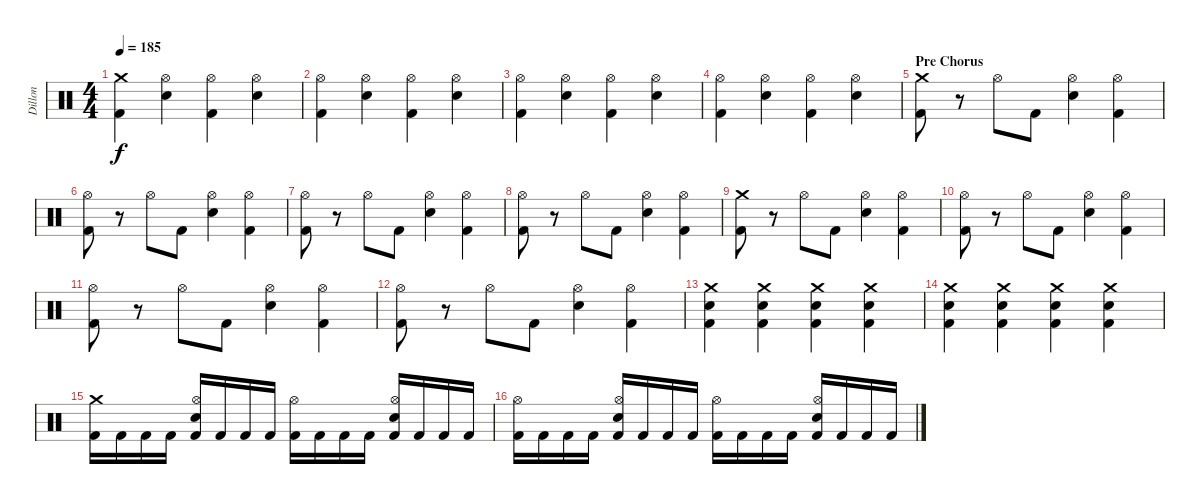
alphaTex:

\track ("Dillon" "Dillon") {instrument percussion}
\staff {score}
\articulation defaults
\ts (4 4)
\tempo 185
\clef neutral
\ks c
("Crash medium (hit)" "Kick (hit) 2").4{dy f} ("Hi-Hat (open)" "Electric Snare (hit)").4 ("Hi-Hat (open)" "Kick (hit) 2").4 ("Hi-Hat (open)" "Electric Snare (hit)").4 |
("Hi-Hat (open)" "Kick (hit) 2").4 ("Hi-Hat (open)" "Electric Snare (hit)").4 ("Hi-Hat (open)" "Kick (hit) 2").4 ("Hi-Hat (open)" "Electric Snare (hit)").4 |
("Hi-Hat (open)" "Kick (hit) 2").4 ("Hi-Hat (open)" "Electric Snare (hit)").4 ("Hi-Hat (open)" "Kick (hit) 2").4 ("Hi-Hat (open)" "Electric Snare (hit)").4 |
("Hi-Hat (open)" "Kick (hit) 2").4 ("Hi-Hat (open)" "Electric Snare (hit)").4 ("Hi-Hat (open)" "Kick (hit) 2").4 ("Hi-Hat (open)" "Electric Snare (hit)").4 |
\section ("" "Pre Chorus")
("Crash medium (hit)" "Kick (hit) 2").8 r.8 "Hi-Hat (open)".8 "Kick (hit) 2".8 ("Hi-Hat (open)" "Electric Snare (hit)").4 ("Hi-Hat (open)" "Kick (hit) 2").4 |
("Hi-Hat (open)" "Kick (hit) 2").8 r.8 "Hi-Hat (open)".8 "Kick (hit) 2".8 ("Hi-Hat (open)" "Electric Snare (hit)").4 ("Hi-Hat (open)" "Kick (hit) 2").4 |
("Hi-Hat (open)" "Kick (hit) 2").8 r.8 "Hi-Hat (open)".8 "Kick (hit) 2".8 ("Hi-Hat (open)" "Electric Snare (hit)").4 ("Hi-Hat (open)" "Kick (hit) 2").4 |
("Hi-Hat (open)" "Kick (hit) 2").8 r.8 "Hi-Hat (open)".8 "Kick (hit) 2".8 ("Hi-Hat (open)" "Electric Snare (hit)").4 ("Hi-Hat (open)" "Kick (hit) 2").4 |
("Crash medium (hit)" "Kick (hit) 2").8 r.8 "Hi-Hat (open)".8 "Kick (hit) 2".8 ("Hi-Hat (open)" "Electric Snare (hit)").4 ("Hi-Hat (open)" "Kick (hit) 2").4 |
("Hi-Hat (open)" "Kick (hit) 2").8 r.8 "Hi-Hat (open)".8 "Kick (hit) 2".8 ("Hi-Hat (open)" "Electric Snare (hit)").4 ("Hi-Hat (open)" "Kick (hit) 2").4 |
("Hi-Hat (open)" "Kick (hit) 2").8 r.8 "Hi-Hat (open)".8 "Kick (hit) 2".8 ("Hi-Hat (open)" "Electric Snare (hit)").4 ("Hi-Hat (open)" "Kick (hit) 2").4 |
("Hi-Hat (open)" "Kick (hit) 2").8 r.8 "Hi-Hat (open)".8 "Kick (hit) 2".8 ("Hi-Hat (open)" "Electric Snare (hit)").4 ("Hi-Hat (open)" "Kick (hit) 2").4 |
("Crash medium (hit)" "Electric Snare (hit)" "Kick (hit) 2").4 ("Crash medium (hit)" "Electric Snare (hit)" "Kick (hit) 2").4 ("Crash medium (hit)" "Electric Snare (hit)" "Kick (hit) 2").4 ("Crash medium (hit)" "Electric Snare (hit)" "Kick (hit) 2").4 |
("Crash medium (hit)" "Electric Snare (hit)" "Kick (hit) 2").4 ("Crash medium (hit)" "Electric Snare (hit)" "Kick (hit) 2").4 ("Crash medium (hit)" "Electric Snare (hit)" "Kick (hit) 2").4 ("Crash medium (hit)" "Electric Snare (hit)" "Kick (hit) 2").4 |
("Crash medium (hit)" "Kick (hit) 2").16 "Kick (hit) 2".16 "Kick (hit) 2".16 "Kick (hit) 2".16 ("Hi-Hat (open)" "Electric Snare (hit)" "Kick (hit) 2").16 "Kick (hit) 2".16 "Kick (hit) 2".16 "Kick (hit) 2".16 ("Hi-Hat (open)" "Kick (hit) 2").16 "Kick (hit) 2".16 "Kick (hit) 2".16 "Kick (hit) 2".16 ("Hi-Hat (open)" "Electric Snare (hit)" "Kick (hit) 2").16 "Kick (hit) 2".16 "Kick (hit) 2".16 "Kick (hit) 2".16 |
("Hi-Hat (open)" "Kick (hit) 2").16 "Kick (hit) 2".16 "Kick (hit) 2".16 "Kick (hit) 2".16 ("Hi-Hat (open)" "Electric Snare (hit)" "Kick (hit) 2").16 "Kick (hit) 2".16 "Kick (hit) 2".16 "Kick (hit) 2".16 ("Hi-Hat (open)" "Kick (hit) 2").16 "Kick (hit) 2".16 "Kick (hit) 2".16 "Kick (hit) 2".16 ("Hi-Hat (open)" "Electric Snare (hit)" "Kick (hit) 2").16 "Kick (hit) 2".16 "Kick (hit) 2".16 "Kick (hit) 2".16
